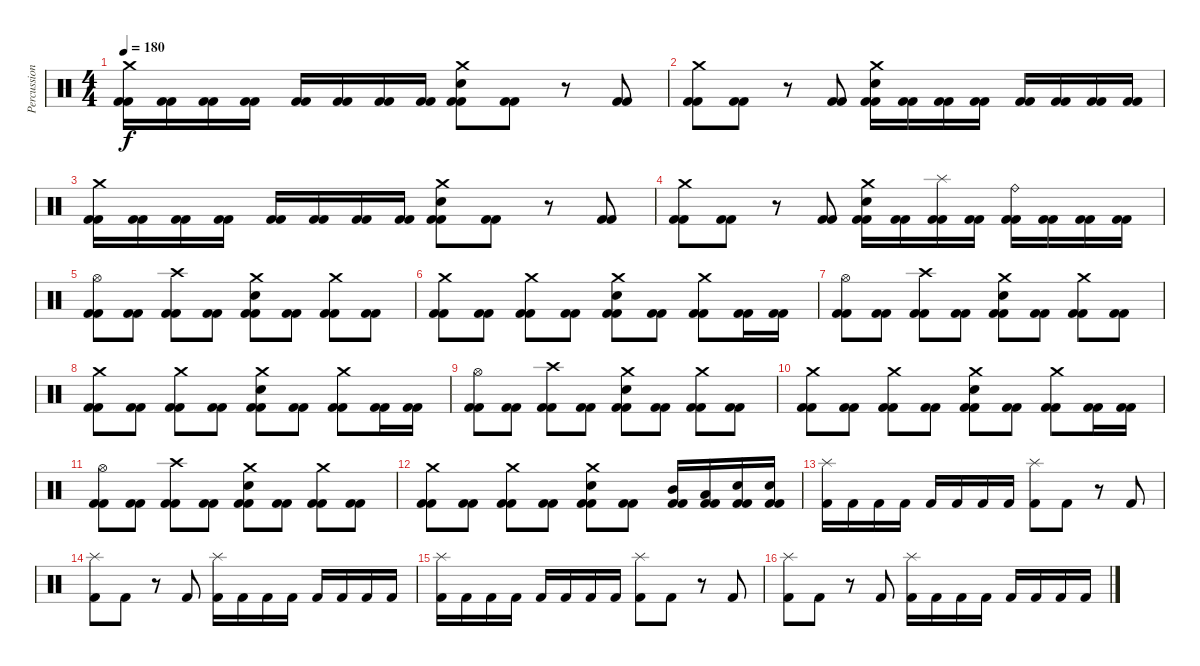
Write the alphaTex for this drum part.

\track ("Percussion" "Percussion") {instrument percussion}
\staff {score}
\articulation defaults
\ts (4 4)
\tempo 180
\clef neutral
\ks c
("Crash medium (hit)" "Kick (hit) 2" "Kick (hit) 2").16{dy f} ("Kick (hit) 2" "Kick (hit) 2").16 ("Kick (hit) 2" "Kick (hit) 2").16 ("Kick (hit) 2" "Kick (hit) 2").16 ("Kick (hit) 2" "Kick (hit) 2").16 ("Kick (hit) 2" "Kick (hit) 2").16 ("Kick (hit) 2" "Kick (hit) 2").16 ("Kick (hit) 2" "Kick (hit) 2").16 ("Crash medium (hit)" "Electric Snare (hit)" "Kick (hit) 2" "Kick (hit) 2").8 ("Kick (hit) 2" "Kick (hit) 2").8 r.8 ("Kick (hit) 2" "Kick (hit) 2").8 |
("Crash medium (hit)" "Kick (hit) 2" "Kick (hit) 2").8 ("Kick (hit) 2" "Kick (hit) 2").8 r.8 ("Kick (hit) 2" "Kick (hit) 2").8 ("Crash medium (hit)" "Electric Snare (hit)" "Kick (hit) 2" "Kick (hit) 2").16 ("Kick (hit) 2" "Kick (hit) 2").16 ("Kick (hit) 2" "Kick (hit) 2").16 ("Kick (hit) 2" "Kick (hit) 2").16 ("Kick (hit) 2" "Kick (hit) 2").16 ("Kick (hit) 2" "Kick (hit) 2").16 ("Kick (hit) 2" "Kick (hit) 2").16 ("Kick (hit) 2" "Kick (hit) 2").16 |
("Crash medium (hit)" "Kick (hit) 2" "Kick (hit) 2").16 ("Kick (hit) 2" "Kick (hit) 2").16 ("Kick (hit) 2" "Kick (hit) 2").16 ("Kick (hit) 2" "Kick (hit) 2").16 ("Kick (hit) 2" "Kick (hit) 2").16 ("Kick (hit) 2" "Kick (hit) 2").16 ("Kick (hit) 2" "Kick (hit) 2").16 ("Kick (hit) 2" "Kick (hit) 2").16 ("Crash medium (hit)" "Electric Snare (hit)" "Kick (hit) 2" "Kick (hit) 2").8 ("Kick (hit) 2" "Kick (hit) 2").8 r.8 ("Kick (hit) 2" "Kick (hit) 2").8 |
("Crash medium (hit)" "Kick (hit) 2" "Kick (hit) 2").8 ("Kick (hit) 2" "Kick (hit) 2").8 r.8 ("Kick (hit) 2" "Kick (hit) 2").8 ("Crash medium (hit)" "Electric Snare (hit)" "Kick (hit) 2" "Kick (hit) 2").16 ("Kick (hit) 2" "Kick (hit) 2").16 ("Splash (hit)" "Kick (hit) 2" "Kick (hit) 2").16 ("Kick (hit) 2" "Kick (hit) 2").16 ("Ride (bell)" "Kick (hit) 2" "Kick (hit) 2").16 ("Kick (hit) 2" "Kick (hit) 2").16 ("Kick (hit) 2" "Kick (hit) 2").16 ("Kick (hit) 2" "Kick (hit) 2").16 |
("Hi-Hat (open)" "Kick (hit) 2" "Kick (hit) 2").8 ("Kick (hit) 2" "Kick (hit) 2").8 ("Crash high (hit)" "Kick (hit) 2" "Kick (hit) 2").8 ("Kick (hit) 2" "Kick (hit) 2").8 ("Crash medium (hit)" "Electric Snare (hit)" "Kick (hit) 2" "Kick (hit) 2").8 ("Kick (hit) 2" "Kick (hit) 2").8 ("Crash medium (hit)" "Kick (hit) 2" "Kick (hit) 2").8 ("Kick (hit) 2" "Kick (hit) 2").8 |
("Crash medium (hit)" "Kick (hit) 2" "Kick (hit) 2").8 ("Kick (hit) 2" "Kick (hit) 2").8 ("Crash medium (hit)" "Kick (hit) 2" "Kick (hit) 2").8 ("Kick (hit) 2" "Kick (hit) 2").8 ("Crash medium (hit)" "Electric Snare (hit)" "Kick (hit) 2" "Kick (hit) 2").8 ("Kick (hit) 2" "Kick (hit) 2").8 ("Crash medium (hit)" "Kick (hit) 2" "Kick (hit) 2").8 ("Kick (hit) 2" "Kick (hit) 2").16 ("Kick (hit) 2" "Kick (hit) 2").16 |
("Hi-Hat (open)" "Kick (hit) 2" "Kick (hit) 2").8 ("Kick (hit) 2" "Kick (hit) 2").8 ("Crash high (hit)" "Kick (hit) 2" "Kick (hit) 2").8 ("Kick (hit) 2" "Kick (hit) 2").8 ("Crash medium (hit)" "Electric Snare (hit)" "Kick (hit) 2" "Kick (hit) 2").8 ("Kick (hit) 2" "Kick (hit) 2").8 ("Crash medium (hit)" "Kick (hit) 2" "Kick (hit) 2").8 ("Kick (hit) 2" "Kick (hit) 2").8 |
("Crash medium (hit)" "Kick (hit) 2" "Kick (hit) 2").8 ("Kick (hit) 2" "Kick (hit) 2").8 ("Crash medium (hit)" "Kick (hit) 2" "Kick (hit) 2").8 ("Kick (hit) 2" "Kick (hit) 2").8 ("Crash medium (hit)" "Electric Snare (hit)" "Kick (hit) 2" "Kick (hit) 2").8 ("Kick (hit) 2" "Kick (hit) 2").8 ("Crash medium (hit)" "Kick (hit) 2" "Kick (hit) 2").8 ("Kick (hit) 2" "Kick (hit) 2").16 ("Kick (hit) 2" "Kick (hit) 2").16 |
("Hi-Hat (open)" "Kick (hit) 2" "Kick (hit) 2").8 ("Kick (hit) 2" "Kick (hit) 2").8 ("Crash high (hit)" "Kick (hit) 2" "Kick (hit) 2").8 ("Kick (hit) 2" "Kick (hit) 2").8 ("Crash medium (hit)" "Electric Snare (hit)" "Kick (hit) 2" "Kick (hit) 2").8 ("Kick (hit) 2" "Kick (hit) 2").8 ("Crash medium (hit)" "Kick (hit) 2" "Kick (hit) 2").8 ("Kick (hit) 2" "Kick (hit) 2").8 |
("Crash medium (hit)" "Kick (hit) 2" "Kick (hit) 2").8 ("Kick (hit) 2" "Kick (hit) 2").8 ("Crash medium (hit)" "Kick (hit) 2" "Kick (hit) 2").8 ("Kick (hit) 2" "Kick (hit) 2").8 ("Crash medium (hit)" "Electric Snare (hit)" "Kick (hit) 2" "Kick (hit) 2").8 ("Kick (hit) 2" "Kick (hit) 2").8 ("Crash medium (hit)" "Kick (hit) 2" "Kick (hit) 2").8 ("Kick (hit) 2" "Kick (hit) 2").16 ("Kick (hit) 2" "Kick (hit) 2").16 |
("Hi-Hat (open)" "Kick (hit) 2" "Kick (hit) 2").8 ("Kick (hit) 2" "Kick (hit) 2").8 ("Crash high (hit)" "Kick (hit) 2" "Kick (hit) 2").8 ("Kick (hit) 2" "Kick (hit) 2").8 ("Crash medium (hit)" "Electric Snare (hit)" "Kick (hit) 2" "Kick (hit) 2").8 ("Kick (hit) 2" "Kick (hit) 2").8 ("Crash medium (hit)" "Kick (hit) 2" "Kick (hit) 2").8 ("Kick (hit) 2" "Kick (hit) 2").8 |
("Crash medium (hit)" "Kick (hit) 2" "Kick (hit) 2").8 ("Kick (hit) 2" "Kick (hit) 2").8 ("Crash medium (hit)" "Kick (hit) 2" "Kick (hit) 2").8 ("Kick (hit) 2" "Kick (hit) 2").8 ("Crash medium (hit)" "Electric Snare (hit)" "Kick (hit) 2" "Kick (hit) 2").8 ("Kick (hit) 2" "Kick (hit) 2").8 ("Mid Tom (hit)" "Kick (hit) 2" "Kick (hit) 2").16 ("Low Tom (hit)" "Kick (hit) 2" "Kick (hit) 2").16 ("Electric Snare (hit)" "Kick (hit) 2" "Kick (hit) 2").16 ("Electric Snare (hit)" "Kick (hit) 2" "Kick (hit) 2").16 |
("Splash (hit)" "Kick (hit) 2").16 "Kick (hit) 2".16 "Kick (hit) 2".16 "Kick (hit) 2".16 "Kick (hit) 2".16 "Kick (hit) 2".16 "Kick (hit) 2".16 "Kick (hit) 2".16 ("Splash (hit)" "Kick (hit) 2").8 "Kick (hit) 2".8 r.8 "Kick (hit) 2".8 |
("Splash (hit)" "Kick (hit) 2").8 "Kick (hit) 2".8 r.8 "Kick (hit) 2".8 ("Splash (hit)" "Kick (hit) 2").16 "Kick (hit) 2".16 "Kick (hit) 2".16 "Kick (hit) 2".16 "Kick (hit) 2".16 "Kick (hit) 2".16 "Kick (hit) 2".16 "Kick (hit) 2".16 |
("Splash (hit)" "Kick (hit) 2").16 "Kick (hit) 2".16 "Kick (hit) 2".16 "Kick (hit) 2".16 "Kick (hit) 2".16 "Kick (hit) 2".16 "Kick (hit) 2".16 "Kick (hit) 2".16 ("Splash (hit)" "Kick (hit) 2").8 "Kick (hit) 2".8 r.8 "Kick (hit) 2".8 |
("Splash (hit)" "Kick (hit) 2").8 "Kick (hit) 2".8 r.8 "Kick (hit) 2".8 ("Splash (hit)" "Kick (hit) 2").16 "Kick (hit) 2".16 "Kick (hit) 2".16 "Kick (hit) 2".16 "Kick (hit) 2".16 "Kick (hit) 2".16 "Kick (hit) 2".16 "Kick (hit) 2".16
